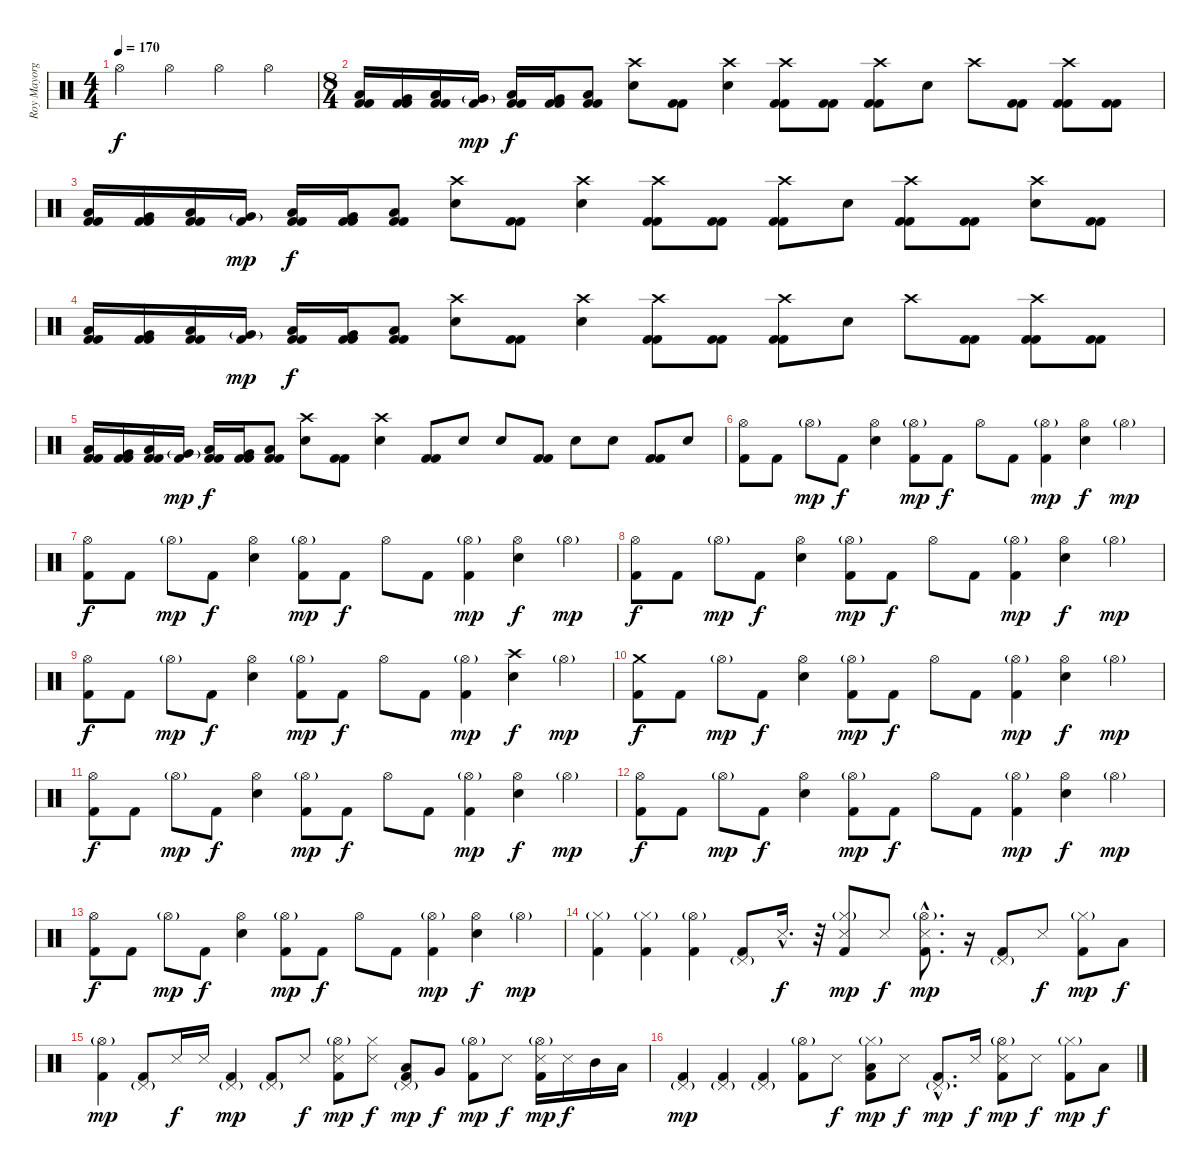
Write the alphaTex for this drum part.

\track ("Roy Mayorga" "Roy Mayorg") {instrument percussion}
\staff {score}
\articulation defaults
\ts (4 4)
\tempo 170
\clef neutral
\ks c "Hi-Hat (open)".4{dy f} "Hi-Hat (open)".4 "Hi-Hat (open)".4 "Hi-Hat (open)".4
|
\ts (8 4)
("Low Tom (hit)" "Kick (hit) 2" "Kick (hit) 2").16 ("Very Low Tom (hit)" "Kick (hit) 2" "Kick (hit) 2").16 ("Low Tom (hit)" "Kick (hit) 2" "Kick (hit) 2").16 ("Very Low Tom (hit)"{g} "Kick (hit) 2").16{dy mp} ("Low Tom (hit)" "Kick (hit) 2" "Kick (hit) 2").16{dy f} ("Very Low Tom (hit)" "Kick (hit) 2" "Kick (hit) 2").16 ("Low Tom (hit)" "Kick (hit) 2" "Kick (hit) 2").8 ("Crash high (hit)" "Electric Snare (hit)").8 ("Kick (hit) 2" "Kick (hit) 2").8 ("Crash high (hit)" "Electric Snare (hit)").4 ("Crash high (hit)" "Kick (hit) 2" "Kick (hit) 2").8 ("Kick (hit) 2" "Kick (hit) 2").8 ("Crash high (hit)" "Kick (hit) 2" "Kick (hit) 2").8 "Electric Snare (hit)".8 "Crash high (hit)".8 ("Kick (hit) 2" "Kick (hit) 2").8 ("Crash high (hit)" "Kick (hit) 2" "Kick (hit) 2").8 ("Kick (hit) 2" "Kick (hit) 2").8 |
("Low Tom (hit)" "Kick (hit) 2" "Kick (hit) 2").16 ("Very Low Tom (hit)" "Kick (hit) 2" "Kick (hit) 2").16 ("Low Tom (hit)" "Kick (hit) 2" "Kick (hit) 2").16 ("Very Low Tom (hit)"{g} "Kick (hit) 2").16{dy mp} ("Low Tom (hit)" "Kick (hit) 2" "Kick (hit) 2").16{dy f} ("Very Low Tom (hit)" "Kick (hit) 2" "Kick (hit) 2").16 ("Low Tom (hit)" "Kick (hit) 2" "Kick (hit) 2").8 ("Crash high (hit)" "Electric Snare (hit)").8 ("Kick (hit) 2" "Kick (hit) 2").8 ("Crash high (hit)" "Electric Snare (hit)").4 ("Crash high (hit)" "Kick (hit) 2" "Kick (hit) 2").8 ("Kick (hit) 2" "Kick (hit) 2").8 ("Crash high (hit)" "Kick (hit) 2" "Kick (hit) 2").8 "Electric Snare (hit)".8 ("Crash high (hit)" "Kick (hit) 2" "Kick (hit) 2").8 ("Kick (hit) 2" "Kick (hit) 2").8 ("Crash high (hit)" "Electric Snare (hit)").8 ("Kick (hit) 2" "Kick (hit) 2").8 |
("Low Tom (hit)" "Kick (hit) 2" "Kick (hit) 2").16 ("Very Low Tom (hit)" "Kick (hit) 2" "Kick (hit) 2").16 ("Low Tom (hit)" "Kick (hit) 2" "Kick (hit) 2").16 ("Very Low Tom (hit)"{g} "Kick (hit) 2").16{dy mp} ("Low Tom (hit)" "Kick (hit) 2" "Kick (hit) 2").16{dy f} ("Very Low Tom (hit)" "Kick (hit) 2" "Kick (hit) 2").16 ("Low Tom (hit)" "Kick (hit) 2" "Kick (hit) 2").8 ("Crash high (hit)" "Electric Snare (hit)").8 ("Kick (hit) 2" "Kick (hit) 2").8 ("Crash high (hit)" "Electric Snare (hit)").4 ("Crash high (hit)" "Kick (hit) 2" "Kick (hit) 2").8 ("Kick (hit) 2" "Kick (hit) 2").8 ("Crash high (hit)" "Kick (hit) 2" "Kick (hit) 2").8 "Electric Snare (hit)".8 "Crash high (hit)".8 ("Kick (hit) 2" "Kick (hit) 2").8 ("Crash high (hit)" "Kick (hit) 2" "Kick (hit) 2").8 ("Kick (hit) 2" "Kick (hit) 2").8 |
("Low Tom (hit)" "Kick (hit) 2" "Kick (hit) 2").16 ("Very Low Tom (hit)" "Kick (hit) 2" "Kick (hit) 2").16 ("Low Tom (hit)" "Kick (hit) 2" "Kick (hit) 2").16 ("Very Low Tom (hit)"{g} "Kick (hit) 2").16{dy mp} ("Low Tom (hit)" "Kick (hit) 2" "Kick (hit) 2").16{dy f} ("Very Low Tom (hit)" "Kick (hit) 2" "Kick (hit) 2").16 ("Low Tom (hit)" "Kick (hit) 2" "Kick (hit) 2").8 ("Crash high (hit)" "Electric Snare (hit)").8 ("Kick (hit) 2" "Kick (hit) 2").8 ("Crash high (hit)" "Electric Snare (hit)").4 ("Kick (hit) 2" "Kick (hit) 2").8 "Electric Snare (hit)".8 "Electric Snare (hit)".8 ("Kick (hit) 2" "Kick (hit) 2").8 "Electric Snare (hit)".8 "Electric Snare (hit)".8 ("Kick (hit) 2" "Kick (hit) 2").8 "Electric Snare (hit)".8 |
("Hi-Hat (open)" "Kick (hit) 2").8 "Kick (hit) 2".8 "Hi-Hat (open)"{g}.8{dy mp} "Kick (hit) 2".8{dy f} ("Hi-Hat (open)" "Electric Snare (hit)").4 ("Hi-Hat (open)"{g} "Kick (hit) 2").8{dy mp} "Kick (hit) 2".8{dy f} "Hi-Hat (open)".8 "Kick (hit) 2".8 ("Hi-Hat (open)"{g} "Kick (hit) 2").4{dy mp} ("Hi-Hat (open)" "Electric Snare (hit)").4{dy f} "Hi-Hat (open)"{g}.4{dy mp} |
("Hi-Hat (open)" "Kick (hit) 2").8{dy f} "Kick (hit) 2".8 "Hi-Hat (open)"{g}.8{dy mp} "Kick (hit) 2".8{dy f} ("Hi-Hat (open)" "Electric Snare (hit)").4 ("Hi-Hat (open)"{g} "Kick (hit) 2").8{dy mp} "Kick (hit) 2".8{dy f} "Hi-Hat (open)".8 "Kick (hit) 2".8 ("Hi-Hat (open)"{g} "Kick (hit) 2").4{dy mp} ("Hi-Hat (open)" "Electric Snare (hit)").4{dy f} "Hi-Hat (open)"{g}.4{dy mp} |
("Hi-Hat (open)" "Kick (hit) 2").8{dy f} "Kick (hit) 2".8 "Hi-Hat (open)"{g}.8{dy mp} "Kick (hit) 2".8{dy f} ("Hi-Hat (open)" "Electric Snare (hit)").4 ("Hi-Hat (open)"{g} "Kick (hit) 2").8{dy mp} "Kick (hit) 2".8{dy f} "Hi-Hat (open)".8 "Kick (hit) 2".8 ("Hi-Hat (open)"{g} "Kick (hit) 2").4{dy mp} ("Hi-Hat (open)" "Electric Snare (hit)").4{dy f} "Hi-Hat (open)"{g}.4{dy mp} |
("Hi-Hat (open)" "Kick (hit) 2").8{dy f} "Kick (hit) 2".8 "Hi-Hat (open)"{g}.8{dy mp} "Kick (hit) 2".8{dy f} ("Hi-Hat (open)" "Electric Snare (hit)").4 ("Hi-Hat (open)"{g} "Kick (hit) 2").8{dy mp} "Kick (hit) 2".8{dy f} "Hi-Hat (open)".8 "Kick (hit) 2".8 ("Hi-Hat (open)"{g} "Kick (hit) 2").4{dy mp} ("Crash high (hit)" "Electric Snare (hit)").4{dy f} "Hi-Hat (open)"{g}.4{dy mp} |
("Crash medium (hit)" "Kick (hit) 2").8{dy f} "Kick (hit) 2".8 "Hi-Hat (open)"{g}.8{dy mp} "Kick (hit) 2".8{dy f} ("Hi-Hat (open)" "Electric Snare (hit)").4 ("Hi-Hat (open)"{g} "Kick (hit) 2").8{dy mp} "Kick (hit) 2".8{dy f} "Hi-Hat (open)".8 "Kick (hit) 2".8 ("Hi-Hat (open)"{g} "Kick (hit) 2").4{dy mp} ("Hi-Hat (open)" "Electric Snare (hit)").4{dy f} "Hi-Hat (open)"{g}.4{dy mp} |
("Hi-Hat (open)" "Kick (hit) 2").8{dy f} "Kick (hit) 2".8 "Hi-Hat (open)"{g}.8{dy mp} "Kick (hit) 2".8{dy f} ("Hi-Hat (open)" "Electric Snare (hit)").4 ("Hi-Hat (open)"{g} "Kick (hit) 2").8{dy mp} "Kick (hit) 2".8{dy f} "Hi-Hat (open)".8 "Kick (hit) 2".8 ("Hi-Hat (open)"{g} "Kick (hit) 2").4{dy mp} ("Hi-Hat (open)" "Electric Snare (hit)").4{dy f} "Hi-Hat (open)"{g}.4{dy mp} |
("Hi-Hat (open)" "Kick (hit) 2").8{dy f} "Kick (hit) 2".8 "Hi-Hat (open)"{g}.8{dy mp} "Kick (hit) 2".8{dy f} ("Hi-Hat (open)" "Electric Snare (hit)").4 ("Hi-Hat (open)"{g} "Kick (hit) 2").8{dy mp} "Kick (hit) 2".8{dy f} "Hi-Hat (open)".8 "Kick (hit) 2".8 ("Hi-Hat (open)"{g} "Kick (hit) 2").4{dy mp} ("Hi-Hat (open)" "Electric Snare (hit)").4{dy f} "Hi-Hat (open)"{g}.4{dy mp} |
("Hi-Hat (open)" "Kick (hit) 2").8{dy f} "Kick (hit) 2".8 "Hi-Hat (open)"{g}.8{dy mp} "Kick (hit) 2".8{dy f} ("Hi-Hat (open)" "Electric Snare (hit)").4 ("Hi-Hat (open)"{g} "Kick (hit) 2").8{dy mp} "Kick (hit) 2".8{dy f} "Hi-Hat (open)".8 "Kick (hit) 2".8 ("Hi-Hat (open)"{g} "Kick (hit) 2").4{dy mp} ("Hi-Hat (open)" "Electric Snare (hit)").4{dy f} "Hi-Hat (open)"{g}.4{dy mp} |
("Hi-Hat (closed)"{g} "Kick (hit) 2").4 ("Hi-Hat (closed)"{g} "Kick (hit) 2").4 ("Hi-Hat (open)"{g} "Kick (hit) 2").4 ("Pedal Hi-Hat (hit)"{g} "Kick (hit) 2").8 "Snare (side stick) 3"{hac}.16{d dy f} r.32 ("Hi-Hat (closed)"{g} "Snare (side stick) 3" "Kick (hit) 2").8{dy mp} "Snare (side stick) 3".8{dy f} ("Hi-Hat (open)"{g hac} "Snare (side stick) 3"{hac} "Kick (hit) 2"{hac}).8{d dy mp} r.16 ("Pedal Hi-Hat (hit)"{g} "Kick (hit) 2").8 "Snare (side stick) 3".8{dy f} ("Hi-Hat (closed)"{g} "Kick (hit) 2").8{dy mp} "Low Tom (hit)".8{dy f} |
("Hi-Hat (open)"{g} "Kick (hit) 2").4{dy mp} ("Pedal Hi-Hat (hit)"{g} "Kick (hit) 2").8 "Snare (side stick) 3".16{dy f} "Snare (side stick) 3".16 ("Pedal Hi-Hat (hit)"{g} "Kick (hit) 2").4{dy mp} ("Pedal Hi-Hat (hit)"{g} "Kick (hit) 2").8 "Snare (side stick) 3".8{dy f} ("Hi-Hat (open)"{g} "Snare (side stick) 3" "Kick (hit) 2").8{dy mp} ("Hi-Hat (closed)" "Snare (side stick) 3").8{dy f} ("Pedal Hi-Hat (hit)"{g} "Low Floor Tom (hit)" "Kick (hit) 2").8{dy mp} "Very Low Tom (hit)".8{dy f} ("Hi-Hat (open)"{g} "Kick (hit) 2").8{dy mp} "Snare (side stick) 3".8{dy f} ("Hi-Hat (open)"{g} "Snare (side stick) 3" "Kick (hit) 2").16{dy mp} "Snare (side stick) 3".16{dy f} "Mid Tom (hit)".16 "Low Tom (hit)".16 |
("Pedal Hi-Hat (hit)"{g} "Kick (hit) 2").4{dy mp} ("Pedal Hi-Hat (hit)"{g} "Kick (hit) 2").4 ("Pedal Hi-Hat (hit)"{g} "Kick (hit) 2").4 ("Hi-Hat (open)"{g} "Kick (hit) 2").8 "Snare (side stick) 3".8{dy f} ("Hi-Hat (closed)"{g} "Low Tom (hit)" "Kick (hit) 2").8{dy mp} "Snare (side stick) 3".8{dy f} ("Pedal Hi-Hat (hit)"{g hac} "Kick (hit) 2"{hac}).8{d dy mp} "Snare (side stick) 3".16{dy f} ("Hi-Hat (open)"{g} "Snare (side stick) 3" "Kick (hit) 2").8{dy mp} "Snare (side stick) 3".8{dy f} ("Hi-Hat (closed)"{g} "Kick (hit) 2").8{dy mp} "Low Tom (hit)".8{dy f}
